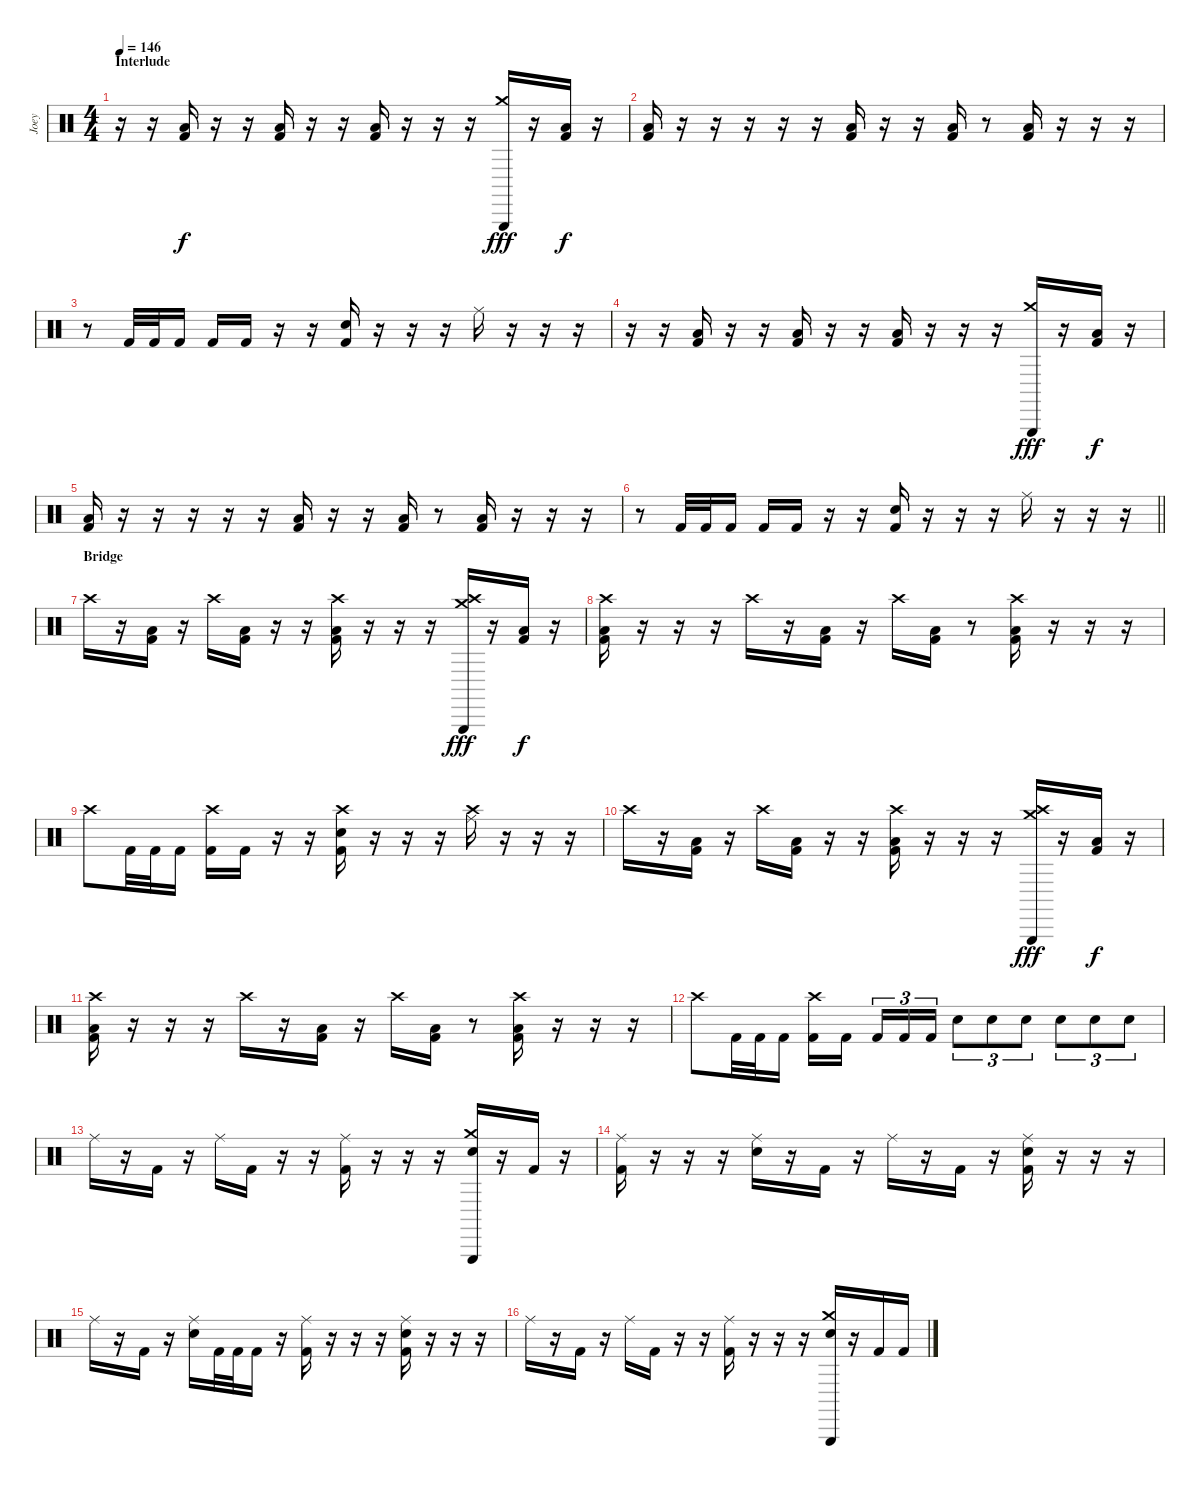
\track ("Joey" "Joey") {instrument percussion}
\staff {score}
\articulation defaults
\ts (4 4)
\section ("" "Interlude")
\tempo 146
\clef neutral
\ks c
r.16{dy f} r.16 ("Low Floor Tom (hit)" "Kick (hit) 2").16 r.16 r.16 ("Low Floor Tom (hit)" "Kick (hit) 2").16 r.16 r.16 ("Low Floor Tom (hit)" "Kick (hit) 2").16 r.16 r.16 r.16 ("Triangle (hit)" "Crash medium (hit)").16{dy fff} r.16 ("Low Floor Tom (hit)" "Kick (hit) 2").16{dy f} r.16 |
("Low Floor Tom (hit)" "Kick (hit) 2").16 r.16 r.16 r.16 r.16 r.16 ("Low Floor Tom (hit)" "Kick (hit) 2").16 r.16 r.16 ("Low Floor Tom (hit)" "Kick (hit) 2").16 r.8 ("Low Floor Tom (hit)" "Kick (hit) 2").16 r.16 r.16 r.16 |
r.8 "Kick (hit) 2".32 "Kick (hit) 2".32 "Kick (hit) 2".16 "Kick (hit) 2".16 "Kick (hit) 2".16 r.16 r.16 ("Snare (hit) 2" "Kick (hit) 2").16 r.16 r.16 r.16 "Ride (middle)".16 r.16 r.16 r.16 |
r.16 r.16 ("Low Floor Tom (hit)" "Kick (hit) 2").16 r.16 r.16 ("Low Floor Tom (hit)" "Kick (hit) 2").16 r.16 r.16 ("Low Floor Tom (hit)" "Kick (hit) 2").16 r.16 r.16 r.16 ("Triangle (hit)" "Crash medium (hit)").16{dy fff} r.16 ("Low Floor Tom (hit)" "Kick (hit) 2").16{dy f} r.16 |
("Low Floor Tom (hit)" "Kick (hit) 2").16 r.16 r.16 r.16 r.16 r.16 ("Low Floor Tom (hit)" "Kick (hit) 2").16 r.16 r.16 ("Low Floor Tom (hit)" "Kick (hit) 2").16 r.8 ("Low Floor Tom (hit)" "Kick (hit) 2").16 r.16 r.16 r.16 |
\barLineRight lightlight
r.8 "Kick (hit) 2".32 "Kick (hit) 2".32 "Kick (hit) 2".16 "Kick (hit) 2".16 "Kick (hit) 2".16 r.16 r.16 ("Snare (hit) 2" "Kick (hit) 2").16 r.16 r.16 r.16 "Ride (middle)".16 r.16 r.16 r.16 |
\section ("" "Bridge")
"Crash high (hit)".16 r.16 ("Low Floor Tom (hit)" "Kick (hit) 2").16 r.16 "Crash high (hit)".16 ("Low Floor Tom (hit)" "Kick (hit) 2").16 r.16 r.16 ("Crash high (hit)" "Low Floor Tom (hit)" "Kick (hit) 2").16 r.16 r.16 r.16 ("Crash high (hit)" "Triangle (hit)" "Crash medium (hit)").16{dy fff} r.16 ("Low Floor Tom (hit)" "Kick (hit) 2").16{dy f} r.16 |
("Crash high (hit)" "Low Floor Tom (hit)" "Kick (hit) 2").16 r.16 r.16 r.16 "Crash high (hit)".16 r.16 ("Low Floor Tom (hit)" "Kick (hit) 2").16 r.16 "Crash high (hit)".16 ("Low Floor Tom (hit)" "Kick (hit) 2").16 r.8 ("Crash high (hit)" "Low Floor Tom (hit)" "Kick (hit) 2").16 r.16 r.16 r.16 |
"Crash high (hit)".8 "Kick (hit) 2".32 "Kick (hit) 2".32 "Kick (hit) 2".16 ("Crash high (hit)" "Kick (hit) 2").16 "Kick (hit) 2".16 r.16 r.16 ("Crash high (hit)" "Snare (hit) 2" "Kick (hit) 2").16 r.16 r.16 r.16 ("Crash high (hit)" "Ride (middle)").16 r.16 r.16 r.16 |
"Crash high (hit)".16 r.16 ("Low Floor Tom (hit)" "Kick (hit) 2").16 r.16 "Crash high (hit)".16 ("Low Floor Tom (hit)" "Kick (hit) 2").16 r.16 r.16 ("Crash high (hit)" "Low Floor Tom (hit)" "Kick (hit) 2").16 r.16 r.16 r.16 ("Crash high (hit)" "Triangle (hit)" "Crash medium (hit)").16{dy fff} r.16 ("Low Floor Tom (hit)" "Kick (hit) 2").16{dy f} r.16 |
("Crash high (hit)" "Low Floor Tom (hit)" "Kick (hit) 2").16 r.16 r.16 r.16 "Crash high (hit)".16 r.16 ("Low Floor Tom (hit)" "Kick (hit) 2").16 r.16 "Crash high (hit)".16 ("Low Floor Tom (hit)" "Kick (hit) 2").16 r.8 ("Crash high (hit)" "Low Floor Tom (hit)" "Kick (hit) 2").16 r.16 r.16 r.16 |
"Crash high (hit)".8 "Kick (hit) 2".32 "Kick (hit) 2".32 "Kick (hit) 2".16 ("Crash high (hit)" "Kick (hit) 2").16 "Kick (hit) 2".16{beam splitsecondary} "Kick (hit) 2".16{tu (3 2)} "Kick (hit) 2".16{tu (3 2)} "Kick (hit) 2".16{tu (3 2)} "Snare (hit) 2".8{tu (3 2)} "Snare (hit) 2".8{tu (3 2)} "Snare (hit) 2".8{tu (3 2)} "Snare (hit) 2".8{tu (3 2)} "Snare (hit) 2".8{tu (3 2)} "Snare (hit) 2".8{tu (3 2)} |
"Ride (middle)".16 r.16 "Kick (hit) 2".16 r.16 "Ride (middle)".16 "Kick (hit) 2".16 r.16 r.16 ("Ride (middle)" "Kick (hit) 2").16 r.16 r.16 r.16 ("Triangle (hit)" "Crash medium (hit)" "Snare (hit) 2").16 r.16 "Kick (hit) 2".16 r.16 |
("Ride (middle)" "Kick (hit) 2").16 r.16 r.16 r.16 ("Ride (middle)" "Snare (hit) 2").16 r.16 "Kick (hit) 2".16 r.16 "Ride (middle)".16 r.16 "Kick (hit) 2".16 r.16 ("Ride (middle)" "Snare (hit) 2" "Kick (hit) 2").16 r.16 r.16 r.16 |
"Ride (middle)".16 r.16 "Kick (hit) 2".16 r.16 ("Ride (middle)" "Snare (hit) 2").16 "Kick (hit) 2".32 "Kick (hit) 2".32 "Kick (hit) 2".16 r.16 ("Ride (middle)" "Kick (hit) 2").16 r.16 r.16 r.16 ("Ride (middle)" "Snare (hit) 2" "Kick (hit) 2").16 r.16 r.16 r.16 |
"Ride (middle)".16 r.16 "Kick (hit) 2".16 r.16 "Ride (middle)".16 "Kick (hit) 2".16 r.16 r.16 ("Ride (middle)" "Kick (hit) 2").16 r.16 r.16 r.16 ("Triangle (hit)" "Crash medium (hit)" "Snare (hit) 2").16 r.16 "Kick (hit) 2".16 "Kick (hit) 2".16
